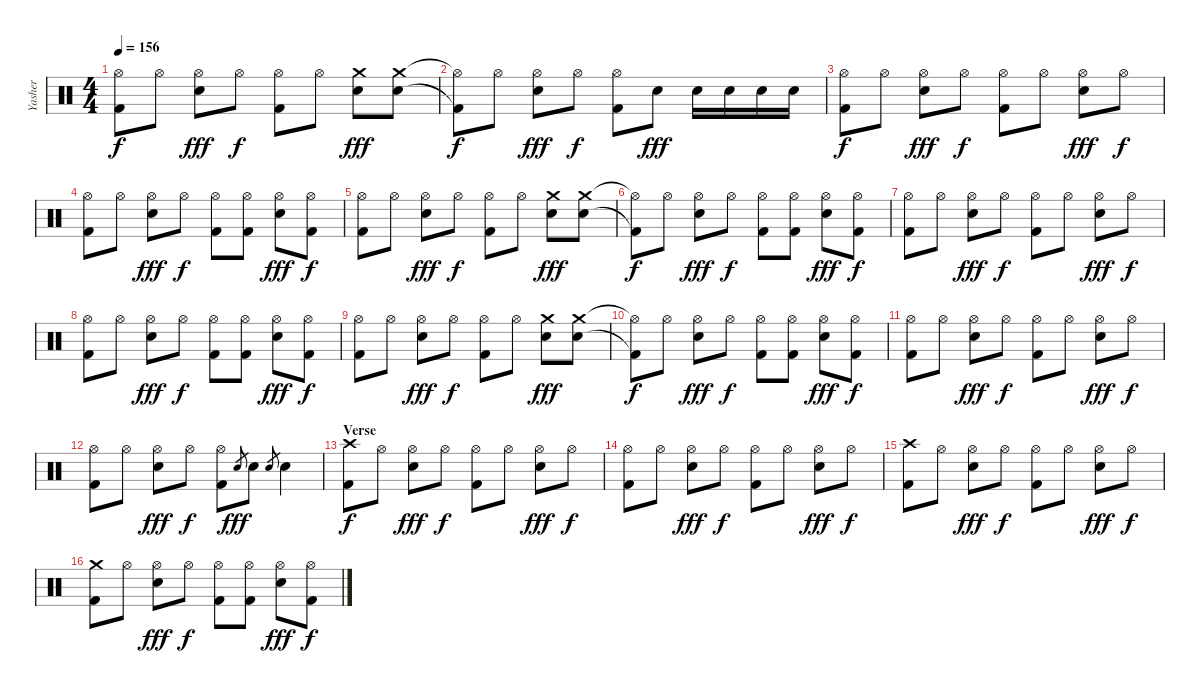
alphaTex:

\track ("Yasher" "Yasher") {instrument percussion}
\staff {score}
\articulation defaults
\ts (4 4)
\tempo 156
\clef neutral
\ks c
("Hi-Hat (open)" "Kick (hit) 2").8{dy f} "Hi-Hat (open)".8 ("Hi-Hat (open)" "Electric Snare (hit)").8{dy fff} "Hi-Hat (open)".8{dy f} ("Hi-Hat (open)" "Kick (hit) 2").8 "Hi-Hat (open)".8 ("Crash medium (hit)" "Electric Snare (hit)").8{dy fff} ("Crash medium (hit)" "Electric Snare (hit)").8 |
("Hi-Hat (open)"{t} "Kick (hit) 2"{t}).8{dy f} "Hi-Hat (open)".8 ("Hi-Hat (open)" "Electric Snare (hit)").8{dy fff} "Hi-Hat (open)".8{dy f} ("Hi-Hat (open)" "Kick (hit) 2").8 "Electric Snare (hit)".8{dy fff} "Electric Snare (hit)".16 "Electric Snare (hit)".16 "Electric Snare (hit)".16 "Electric Snare (hit)".16 |
("Hi-Hat (open)" "Kick (hit) 2").8{dy f} "Hi-Hat (open)".8 ("Hi-Hat (open)" "Electric Snare (hit)").8{dy fff} "Hi-Hat (open)".8{dy f} ("Hi-Hat (open)" "Kick (hit) 2").8 "Hi-Hat (open)".8 ("Hi-Hat (open)" "Electric Snare (hit)").8{dy fff} "Hi-Hat (open)".8{dy f} |
("Hi-Hat (open)" "Kick (hit) 2").8 "Hi-Hat (open)".8 ("Hi-Hat (open)" "Electric Snare (hit)").8{dy fff} "Hi-Hat (open)".8{dy f} ("Hi-Hat (open)" "Kick (hit) 2").8 ("Hi-Hat (open)" "Kick (hit) 2").8 ("Hi-Hat (open)" "Electric Snare (hit)").8{dy fff} ("Hi-Hat (open)" "Kick (hit) 2").8{dy f} |
("Hi-Hat (open)" "Kick (hit) 2").8 "Hi-Hat (open)".8 ("Hi-Hat (open)" "Electric Snare (hit)").8{dy fff} "Hi-Hat (open)".8{dy f} ("Hi-Hat (open)" "Kick (hit) 2").8 "Hi-Hat (open)".8 ("Crash medium (hit)" "Electric Snare (hit)").8{dy fff} ("Crash medium (hit)" "Electric Snare (hit)").8 |
("Hi-Hat (open)"{t} "Kick (hit) 2"{t}).8{dy f} "Hi-Hat (open)".8 ("Hi-Hat (open)" "Electric Snare (hit)").8{dy fff} "Hi-Hat (open)".8{dy f} ("Hi-Hat (open)" "Kick (hit) 2").8 ("Hi-Hat (open)" "Kick (hit) 2").8 ("Hi-Hat (open)" "Electric Snare (hit)").8{dy fff} ("Hi-Hat (open)" "Kick (hit) 2").8{dy f} |
("Hi-Hat (open)" "Kick (hit) 2").8 "Hi-Hat (open)".8 ("Hi-Hat (open)" "Electric Snare (hit)").8{dy fff} "Hi-Hat (open)".8{dy f} ("Hi-Hat (open)" "Kick (hit) 2").8 "Hi-Hat (open)".8 ("Hi-Hat (open)" "Electric Snare (hit)").8{dy fff} "Hi-Hat (open)".8{dy f} |
("Hi-Hat (open)" "Kick (hit) 2").8 "Hi-Hat (open)".8 ("Hi-Hat (open)" "Electric Snare (hit)").8{dy fff} "Hi-Hat (open)".8{dy f} ("Hi-Hat (open)" "Kick (hit) 2").8 ("Hi-Hat (open)" "Kick (hit) 2").8 ("Hi-Hat (open)" "Electric Snare (hit)").8{dy fff} ("Hi-Hat (open)" "Kick (hit) 2").8{dy f} |
("Hi-Hat (open)" "Kick (hit) 2").8 "Hi-Hat (open)".8 ("Hi-Hat (open)" "Electric Snare (hit)").8{dy fff} "Hi-Hat (open)".8{dy f} ("Hi-Hat (open)" "Kick (hit) 2").8 "Hi-Hat (open)".8 ("Crash medium (hit)" "Electric Snare (hit)").8{dy fff} ("Crash medium (hit)" "Electric Snare (hit)").8 |
("Hi-Hat (open)"{t} "Kick (hit) 2"{t}).8{dy f} "Hi-Hat (open)".8 ("Hi-Hat (open)" "Electric Snare (hit)").8{dy fff} "Hi-Hat (open)".8{dy f} ("Hi-Hat (open)" "Kick (hit) 2").8 ("Hi-Hat (open)" "Kick (hit) 2").8 ("Hi-Hat (open)" "Electric Snare (hit)").8{dy fff} ("Hi-Hat (open)" "Kick (hit) 2").8{dy f} |
("Hi-Hat (open)" "Kick (hit) 2").8 "Hi-Hat (open)".8 ("Hi-Hat (open)" "Electric Snare (hit)").8{dy fff} "Hi-Hat (open)".8{dy f} ("Hi-Hat (open)" "Kick (hit) 2").8 "Hi-Hat (open)".8 ("Hi-Hat (open)" "Electric Snare (hit)").8{dy fff} "Hi-Hat (open)".8{dy f} |
("Hi-Hat (open)" "Kick (hit) 2").8 "Hi-Hat (open)".8 ("Hi-Hat (open)" "Electric Snare (hit)").8{dy fff} "Hi-Hat (open)".8{dy f} ("Hi-Hat (open)" "Kick (hit) 2").8 "Electric Snare (hit)".8{gr dy fff} "Electric Snare (hit)".8 "Electric Snare (hit)".8{gr} "Electric Snare (hit)".4 |
\section ("" "Verse")
("Crash high (hit)" "Kick (hit) 2").8{dy f} "Hi-Hat (open)".8 ("Hi-Hat (open)" "Electric Snare (hit)").8{dy fff} "Hi-Hat (open)".8{dy f} ("Hi-Hat (open)" "Kick (hit) 2").8 "Hi-Hat (open)".8 ("Hi-Hat (open)" "Electric Snare (hit)").8{dy fff} "Hi-Hat (open)".8{dy f} |
("Hi-Hat (open)" "Kick (hit) 2").8 "Hi-Hat (open)".8 ("Hi-Hat (open)" "Electric Snare (hit)").8{dy fff} "Hi-Hat (open)".8{dy f} ("Hi-Hat (open)" "Kick (hit) 2").8 "Hi-Hat (open)".8 ("Hi-Hat (open)" "Electric Snare (hit)").8{dy fff} "Hi-Hat (open)".8{dy f} |
("Crash high (hit)" "Kick (hit) 2").8 "Hi-Hat (open)".8 ("Hi-Hat (open)" "Electric Snare (hit)").8{dy fff} "Hi-Hat (open)".8{dy f} ("Hi-Hat (open)" "Kick (hit) 2").8 "Hi-Hat (open)".8 ("Hi-Hat (open)" "Electric Snare (hit)").8{dy fff} "Hi-Hat (open)".8{dy f} |
("Crash medium (hit)" "Kick (hit) 2").8 "Hi-Hat (open)".8 ("Hi-Hat (open)" "Electric Snare (hit)").8{dy fff} "Hi-Hat (open)".8{dy f} ("Hi-Hat (open)" "Kick (hit) 2").8 ("Hi-Hat (open)" "Kick (hit) 2").8 ("Hi-Hat (open)" "Electric Snare (hit)").8{dy fff} ("Hi-Hat (open)" "Kick (hit) 2").8{dy f}
